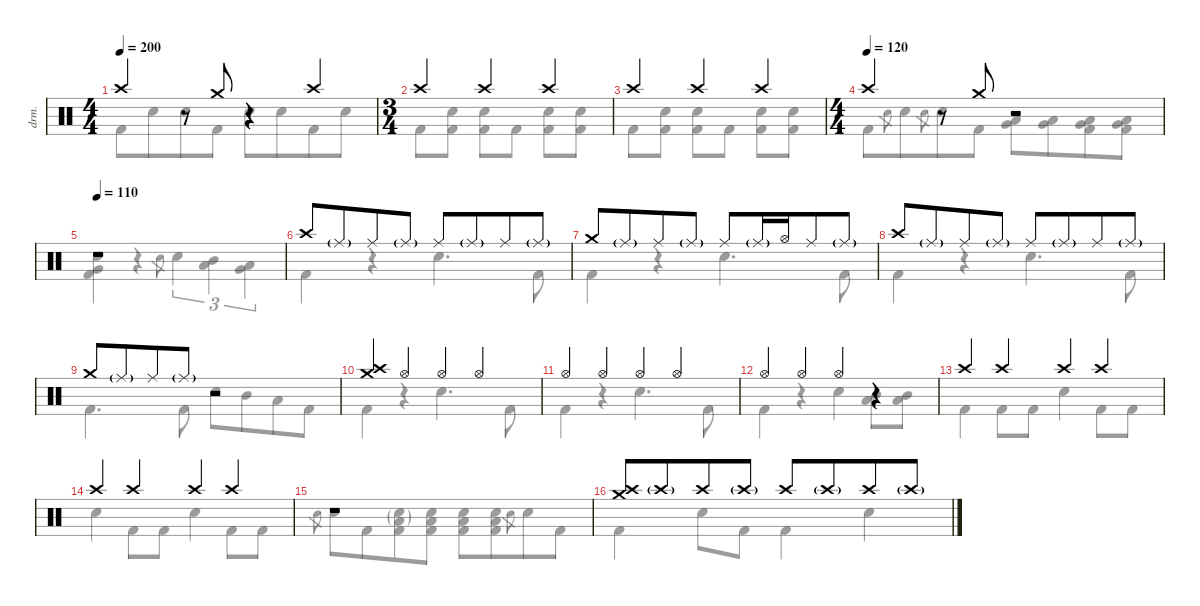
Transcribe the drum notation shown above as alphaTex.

\defaultSystemsLayout 4
\hideDynamics
\bracketExtendMode nobrackets
\otherSystemsTrackNameOrientation horizontal
\track ("B. Richardson Drums" "drm.") {instrument percussion}
\staff {score}
\articulation defaults
\voice
\ts (4 4)
\beaming (8 4 4)
\tempo 200
\clef neutral
\ks c "Crash high (hit)".4{dy mf beam Up}
r.8{beam Up} "Crash medium (hit)".8{beam Up} r.4{beam Up} "Crash high (hit)".4{beam Up} |
\ts (3 4)
\beaming (8 2 2 2)
"Crash high (hit)".4{beam Up} "Crash high (hit)".4{beam Up} "Crash high (hit)".4{beam Up} |
"Crash high (hit)".4{beam Up} "Crash high (hit)".4{beam Up} "Crash high (hit)".4{beam Up} |
\ts (4 4)
\beaming (8 4 4)
\tempo (120)
"Crash high (hit)".4{beam Up} r.8{beam Up} "Crash medium (hit)".8{beam Up} r.2{beam Up} |
\tempo 110
r.1{beam Up} |
"Crash high (hit)".8{beam Up} "Ride (middle)"{g}.8{beam Up} "Ride (middle)".8{beam Up} "Ride (middle)"{g}.8{beam Up} "Ride (middle)".8{beam Up} "Ride (middle)"{g}.8{beam Up} "Ride (middle)".8{beam Up} "Ride (middle)"{g}.8{beam Up} |
"Crash medium (hit)".8{beam Up} "Ride (middle)"{g}.8{beam Up} "Ride (middle)".8{beam Up} "Ride (middle)"{g}.8{beam Up} "Ride (middle)".8{beam Up} "Ride (middle)"{g}.16{beam Up} "Hi-Hat (open)".16{beam Up} "Ride (middle)".8{beam Up} "Ride (middle)"{g}.8{beam Up} |
"Crash high (hit)".8{beam Up} "Ride (middle)"{g}.8{beam Up} "Ride (middle)".8{beam Up} "Ride (middle)"{g}.8{beam Up} "Ride (middle)".8{beam Up} "Ride (middle)"{g}.8{beam Up} "Ride (middle)".8{beam Up} "Ride (middle)"{g}.8{beam Up} |
"Crash medium (hit)".8{beam Up} "Ride (middle)"{g}.8{beam Up} "Ride (middle)".8{beam Up} "Ride (middle)"{g}.8{beam Up} r.2{beam Up} |
("Crash high (hit)" "Crash medium (hit)").4{beam Up} "Hi-Hat (open)".4{beam Up} "Hi-Hat (open)".4{beam Up} "Hi-Hat (open)".4{beam Up} |
"Hi-Hat (open)".4{beam Up} "Hi-Hat (open)".4{beam Up} "Hi-Hat (open)".4{beam Up} "Hi-Hat (open)".4{beam Up} |
"Hi-Hat (open)".4{beam Up} "Hi-Hat (open)".4{beam Up} "Hi-Hat (open)".4{beam Up} r.4{beam Up} |
"Crash high (hit)".4{beam Up} "Crash high (hit)".4{beam Up} "Crash high (hit)".4{beam Up} "Crash high (hit)".4{beam Up} |
"Crash high (hit)".4{beam Up} "Crash high (hit)".4{beam Up} "Crash high (hit)".4{beam Up} "Crash high (hit)".4{beam Up} |
r.1{beam Up} |
("Crash high (hit)" "Crash medium (hit)").8{dy f beam Up} "Crash high (hit)"{g}.8{dy mf beam Up} "Crash high (hit)".8{beam Up} "Crash high (hit)"{g}.8{beam Up} "Crash high (hit)".8{beam Up} "Crash high (hit)"{g}.8{beam Up} "Crash high (hit)".8{beam Up} "Crash high (hit)"{g}.8{beam Up}
\voice
\clef neutral
\ottava regular
\simile none
\ks c "Kick (hit) 2".8{dy fff beam Down} "Snare (hit) 2".8{beam Down} "Snare (hit) 2".8{beam Down} "Kick (hit) 2".8{beam Down} "Snare (hit) 2".8{beam Down} "Snare (hit) 2".8{beam Down} "Kick (hit) 2".8{beam Down} "Snare (hit) 2".8{beam Down}
|
"Kick (hit) 2".8{beam Down} ("Snare (hit) 2" "Kick (hit) 2").8{beam Down} ("Snare (hit) 2" "Kick (hit) 2").8{beam Down} "Kick (hit) 2".8{beam Down} ("Snare (hit) 2" "Kick (hit) 2").8{beam Down} ("Snare (hit) 2" "Kick (hit) 2").8{beam Down} |
"Kick (hit) 2".8{beam Down} ("Snare (hit) 2" "Kick (hit) 2").8{beam Down} ("Snare (hit) 2" "Kick (hit) 2").8{beam Down} "Kick (hit) 2".8{beam Down} ("Snare (hit) 2" "Kick (hit) 2").8{beam Down} ("Snare (hit) 2" "Kick (hit) 2").8{beam Down} |
"Kick (hit) 2".8{beam Down} "Electric Snare (hit)".8{gr dy ff beam Down} "Snare (hit) 2".8{dy fff beam Down} "Electric Snare (hit)".8{gr dy ff beam Down} "Snare (hit) 2".8{dy fff beam Down} "Kick (hit) 2".8{beam Down} ("Low Tom (hit)" "Very Low Tom (hit)").8{beam Down} ("Low Tom (hit)" "Very Low Tom (hit)").8{beam Down} ("Low Tom (hit)" "Very Low Tom (hit)" "Kick (hit) 2").8{beam Down} ("Low Tom (hit)" "Very Low Tom (hit)" "Kick (hit) 2").8{beam Down} |
("Snare (hit) 2" "Very Low Tom (hit)" "Kick (hit) 2").4{beam Down} r.4{beam Down} "Electric Snare (hit)".8{gr dy ff beam Down} "Snare (hit) 2".4{tu (3 2) dy fff beam Down} ("Mid Tom (hit)" "Low Tom (hit)").4{tu (3 2) beam Down} ("Low Tom (hit)" "Very Low Tom (hit)").4{tu (3 2) beam Down} |
"Kick (hit) 2".4{beam Down} r.4{beam Down} "Snare (hit) 2".4{d beam Down} "Kick (hit) 2".8{beam Down} |
"Kick (hit) 2".4{beam Down} r.4{beam Down} "Snare (hit) 2".4{d beam Down} "Kick (hit) 2".8{beam Down} |
"Kick (hit) 2".4{beam Down} r.4{beam Down} "Snare (hit) 2".4{d beam Down} "Kick (hit) 2".8{beam Down} |
"Kick (hit) 2".4{d beam Down} "Kick (hit) 2".8{beam Down} "Snare (hit) 2".8{beam Down} "Mid Tom (hit)".8{beam Down} "Low Tom (hit)".8{beam Down} "Kick (hit) 2".8{beam Down} |
"Kick (hit) 2".4{beam Down} r.4{beam Down} "Snare (hit) 2".4{d beam Down} "Kick (hit) 2".8{beam Down} |
"Kick (hit) 2".4{beam Down} r.4{beam Down} "Snare (hit) 2".4{d beam Down} "Kick (hit) 2".8{beam Down} |
"Kick (hit) 2".4{beam Down} r.4{beam Down} "Snare (hit) 2".4{beam Down} ("Mid Tom (hit)" "Low Tom (hit)").8{beam Down} ("Mid Tom (hit)" "Low Tom (hit)").8{beam Down} |
"Kick (hit) 2".4{beam Down} "Kick (hit) 2".8{beam Down} "Kick (hit) 2".8{beam Down} "Snare (hit) 2".4{beam Down} "Kick (hit) 2".8{beam Down} "Kick (hit) 2".8{beam Down} |
"Snare (hit) 2".4{beam Down} "Kick (hit) 2".8{beam Down} "Kick (hit) 2".8{beam Down} "Snare (hit) 2".4{beam Down} "Kick (hit) 2".8{beam Down} "Kick (hit) 2".8{beam Down} |
"Electric Snare (hit)".8{gr dy ff beam Down} "Snare (hit) 2".8{dy fff beam Down} "Kick (hit) 2".8{beam Down} ("Snare (hit) 2"{g} "Low Tom (hit)"{g} "Kick (hit) 2").8{beam Down} ("Snare (hit) 2" "Low Tom (hit)" "Kick (hit) 2").8{dy mf beam Down} ("Snare (hit) 2" "Low Tom (hit)" "Kick (hit) 2").8{dy f beam Down} ("Snare (hit) 2" "Low Tom (hit)" "Kick (hit) 2").8{dy ff beam Down} "Electric Snare (hit)".8{gr beam Down} "Snare (hit) 2".8{dy fff beam Down} "Kick (hit) 2".8{beam Down} |
"Kick (hit) 2".4{beam Down} "Snare (hit) 2".8{beam Down} "Kick (hit) 2".8{beam Down} "Kick (hit) 2".4{beam Down} "Snare (hit) 2".4{beam Down}
